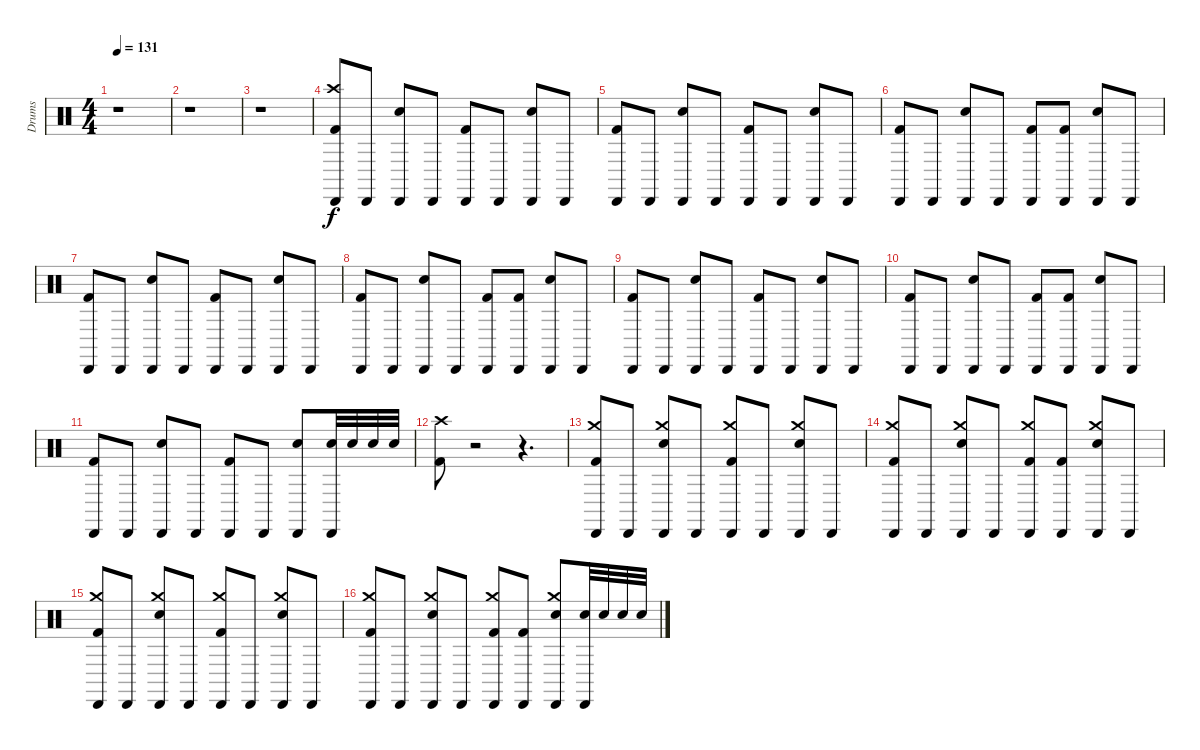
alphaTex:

\track ("Drums" "Drums") {instrument percussion}
\staff {score}
\articulation defaults
\ts (4 4)
\tempo 131
\clef neutral
\ks c
r.1{dy f} |
r.1 |
r.1 |
("Crash high (hit)" "Cabasa (hit)" "Kick (hit) 2").8 "Cabasa (hit)".8 ("Cabasa (hit)" "Electric Snare (hit)").8 "Cabasa (hit)".8 ("Cabasa (hit)" "Kick (hit) 2").8 "Cabasa (hit)".8 ("Cabasa (hit)" "Electric Snare (hit)").8 "Cabasa (hit)".8 |
("Cabasa (hit)" "Kick (hit) 2").8 "Cabasa (hit)".8 ("Cabasa (hit)" "Electric Snare (hit)").8 "Cabasa (hit)".8 ("Cabasa (hit)" "Kick (hit) 2").8 "Cabasa (hit)".8 ("Cabasa (hit)" "Electric Snare (hit)").8 "Cabasa (hit)".8 |
("Cabasa (hit)" "Kick (hit) 2").8 "Cabasa (hit)".8 ("Cabasa (hit)" "Electric Snare (hit)").8 "Cabasa (hit)".8 ("Cabasa (hit)" "Kick (hit) 2").8 ("Cabasa (hit)" "Kick (hit) 2").8 ("Cabasa (hit)" "Electric Snare (hit)").8 "Cabasa (hit)".8 |
("Cabasa (hit)" "Kick (hit) 2").8 "Cabasa (hit)".8 ("Cabasa (hit)" "Electric Snare (hit)").8 "Cabasa (hit)".8 ("Cabasa (hit)" "Kick (hit) 2").8 "Cabasa (hit)".8 ("Cabasa (hit)" "Electric Snare (hit)").8 "Cabasa (hit)".8 |
("Cabasa (hit)" "Kick (hit) 2").8 "Cabasa (hit)".8 ("Cabasa (hit)" "Electric Snare (hit)").8 "Cabasa (hit)".8 ("Cabasa (hit)" "Kick (hit) 2").8 ("Cabasa (hit)" "Kick (hit) 2").8 ("Cabasa (hit)" "Electric Snare (hit)").8 "Cabasa (hit)".8 |
("Cabasa (hit)" "Kick (hit) 2").8 "Cabasa (hit)".8 ("Cabasa (hit)" "Electric Snare (hit)").8 "Cabasa (hit)".8 ("Cabasa (hit)" "Kick (hit) 2").8 "Cabasa (hit)".8 ("Cabasa (hit)" "Electric Snare (hit)").8 "Cabasa (hit)".8 |
("Cabasa (hit)" "Kick (hit) 2").8 "Cabasa (hit)".8 ("Cabasa (hit)" "Electric Snare (hit)").8 "Cabasa (hit)".8 ("Cabasa (hit)" "Kick (hit) 2").8 ("Cabasa (hit)" "Kick (hit) 2").8 ("Cabasa (hit)" "Electric Snare (hit)").8 "Cabasa (hit)".8 |
("Cabasa (hit)" "Kick (hit) 2").8 "Cabasa (hit)".8 ("Cabasa (hit)" "Electric Snare (hit)").8 "Cabasa (hit)".8 ("Cabasa (hit)" "Kick (hit) 2").8 "Cabasa (hit)".8 ("Cabasa (hit)" "Electric Snare (hit)").8 ("Cabasa (hit)" "Electric Snare (hit)").32 "Electric Snare (hit)".32 "Electric Snare (hit)".32 "Electric Snare (hit)".32 |
("Crash high (hit)" "Kick (hit) 2").8 r.2 r.4{d} |
("Crash medium (hit)" "Cabasa (hit)" "Kick (hit) 2").8 "Cabasa (hit)".8 ("Crash medium (hit)" "Cabasa (hit)" "Electric Snare (hit)").8 "Cabasa (hit)".8 ("Crash medium (hit)" "Cabasa (hit)" "Kick (hit) 2").8 "Cabasa (hit)".8 ("Crash medium (hit)" "Cabasa (hit)" "Electric Snare (hit)").8 "Cabasa (hit)".8 |
("Crash medium (hit)" "Cabasa (hit)" "Kick (hit) 2").8 "Cabasa (hit)".8 ("Crash medium (hit)" "Cabasa (hit)" "Electric Snare (hit)").8 "Cabasa (hit)".8 ("Crash medium (hit)" "Cabasa (hit)" "Kick (hit) 2").8 ("Cabasa (hit)" "Kick (hit) 2").8 ("Crash medium (hit)" "Cabasa (hit)" "Electric Snare (hit)").8 "Cabasa (hit)".8 |
("Crash medium (hit)" "Cabasa (hit)" "Kick (hit) 2").8 "Cabasa (hit)".8 ("Crash medium (hit)" "Cabasa (hit)" "Electric Snare (hit)").8 "Cabasa (hit)".8 ("Crash medium (hit)" "Cabasa (hit)" "Kick (hit) 2").8 "Cabasa (hit)".8 ("Crash medium (hit)" "Cabasa (hit)" "Electric Snare (hit)").8 "Cabasa (hit)".8 |
("Crash medium (hit)" "Cabasa (hit)" "Kick (hit) 2").8 "Cabasa (hit)".8 ("Crash medium (hit)" "Cabasa (hit)" "Electric Snare (hit)").8 "Cabasa (hit)".8 ("Crash medium (hit)" "Cabasa (hit)" "Kick (hit) 2").8 ("Cabasa (hit)" "Kick (hit) 2").8 ("Crash medium (hit)" "Cabasa (hit)" "Electric Snare (hit)").8 ("Cabasa (hit)" "Electric Snare (hit)").32 "Electric Snare (hit)".32 "Electric Snare (hit)".32 "Electric Snare (hit)".32
